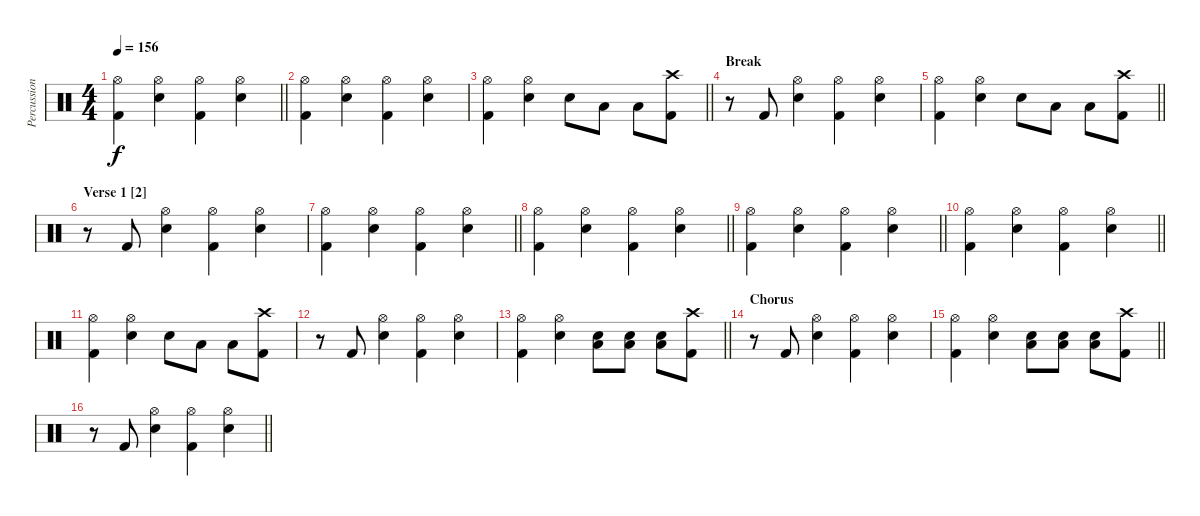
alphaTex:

\track ("Percussion" "Percussion") {instrument percussion}
\staff {score}
\articulation defaults
\ts (4 4)
\tempo 156
\clef neutral
\barLineRight lightlight
\ks c
("Hi-Hat (open)" "Kick (hit) 2").4{dy f} ("Hi-Hat (open)" "Snare (hit) 2").4 ("Hi-Hat (open)" "Kick (hit) 2").4 ("Hi-Hat (open)" "Snare (hit) 2").4 |
("Hi-Hat (open)" "Kick (hit) 2").4 ("Hi-Hat (open)" "Snare (hit) 2").4 ("Hi-Hat (open)" "Kick (hit) 2").4 ("Hi-Hat (open)" "Snare (hit) 2").4 |
\barLineRight lightlight
("Hi-Hat (open)" "Kick (hit) 2").4 ("Hi-Hat (open)" "Snare (hit) 2").4 "Snare (hit) 2".8 "Low Tom (hit)".8 "Low Tom (hit)".8 ("Crash high (hit)" "Kick (hit) 2").8 |
\section ("" "Break")
r.8 "Kick (hit) 2".8 ("Hi-Hat (open)" "Snare (hit) 2").4 ("Hi-Hat (open)" "Kick (hit) 2").4 ("Hi-Hat (open)" "Snare (hit) 2").4 |
\barLineRight lightlight
("Hi-Hat (open)" "Kick (hit) 2").4 ("Hi-Hat (open)" "Snare (hit) 2").4 "Snare (hit) 2".8 "Low Tom (hit)".8 "Low Tom (hit)".8 ("Crash high (hit)" "Kick (hit) 2").8 |
\section ("" "Verse 1 [2]")
r.8 "Kick (hit) 2".8 ("Hi-Hat (open)" "Snare (hit) 2").4 ("Hi-Hat (open)" "Kick (hit) 2").4 ("Hi-Hat (open)" "Snare (hit) 2").4 |
\barLineRight lightlight
("Hi-Hat (open)" "Kick (hit) 2").4 ("Hi-Hat (open)" "Snare (hit) 2").4 ("Hi-Hat (open)" "Kick (hit) 2").4 ("Hi-Hat (open)" "Snare (hit) 2").4 |
\barLineRight lightlight
("Hi-Hat (open)" "Kick (hit) 2").4 ("Hi-Hat (open)" "Snare (hit) 2").4 ("Hi-Hat (open)" "Kick (hit) 2").4 ("Hi-Hat (open)" "Snare (hit) 2").4 |
\barLineRight lightlight
("Hi-Hat (open)" "Kick (hit) 2").4 ("Hi-Hat (open)" "Snare (hit) 2").4 ("Hi-Hat (open)" "Kick (hit) 2").4 ("Hi-Hat (open)" "Snare (hit) 2").4 |
\barLineRight lightlight
("Hi-Hat (open)" "Kick (hit) 2").4 ("Hi-Hat (open)" "Snare (hit) 2").4 ("Hi-Hat (open)" "Kick (hit) 2").4 ("Hi-Hat (open)" "Snare (hit) 2").4 |
("Hi-Hat (open)" "Kick (hit) 2").4 ("Hi-Hat (open)" "Snare (hit) 2").4 "Snare (hit) 2".8 "Low Tom (hit)".8 "Low Tom (hit)".8 ("Crash high (hit)" "Kick (hit) 2").8 |
r.8 "Kick (hit) 2".8 ("Hi-Hat (open)" "Snare (hit) 2").4 ("Hi-Hat (open)" "Kick (hit) 2").4 ("Hi-Hat (open)" "Snare (hit) 2").4 |
\barLineRight lightlight
("Hi-Hat (open)" "Kick (hit) 2").4 ("Hi-Hat (open)" "Snare (hit) 2").4 ("Low Tom (hit)" "Snare (hit) 2").8 ("Low Tom (hit)" "Snare (hit) 2").8 ("Low Tom (hit)" "Snare (hit) 2").8 ("Crash high (hit)" "Kick (hit) 2").8 |
\section ("" "Chorus")
r.8 "Kick (hit) 2".8 ("Hi-Hat (open)" "Snare (hit) 2").4 ("Hi-Hat (open)" "Kick (hit) 2").4 ("Hi-Hat (open)" "Snare (hit) 2").4 |
\barLineRight lightlight
("Hi-Hat (open)" "Kick (hit) 2").4 ("Hi-Hat (open)" "Snare (hit) 2").4 ("Low Tom (hit)" "Snare (hit) 2").8 ("Low Tom (hit)" "Snare (hit) 2").8 ("Low Tom (hit)" "Snare (hit) 2").8 ("Crash high (hit)" "Kick (hit) 2").8 |
\barLineRight lightlight
r.8 "Kick (hit) 2".8 ("Hi-Hat (open)" "Snare (hit) 2").4 ("Hi-Hat (open)" "Kick (hit) 2").4 ("Hi-Hat (open)" "Snare (hit) 2").4
